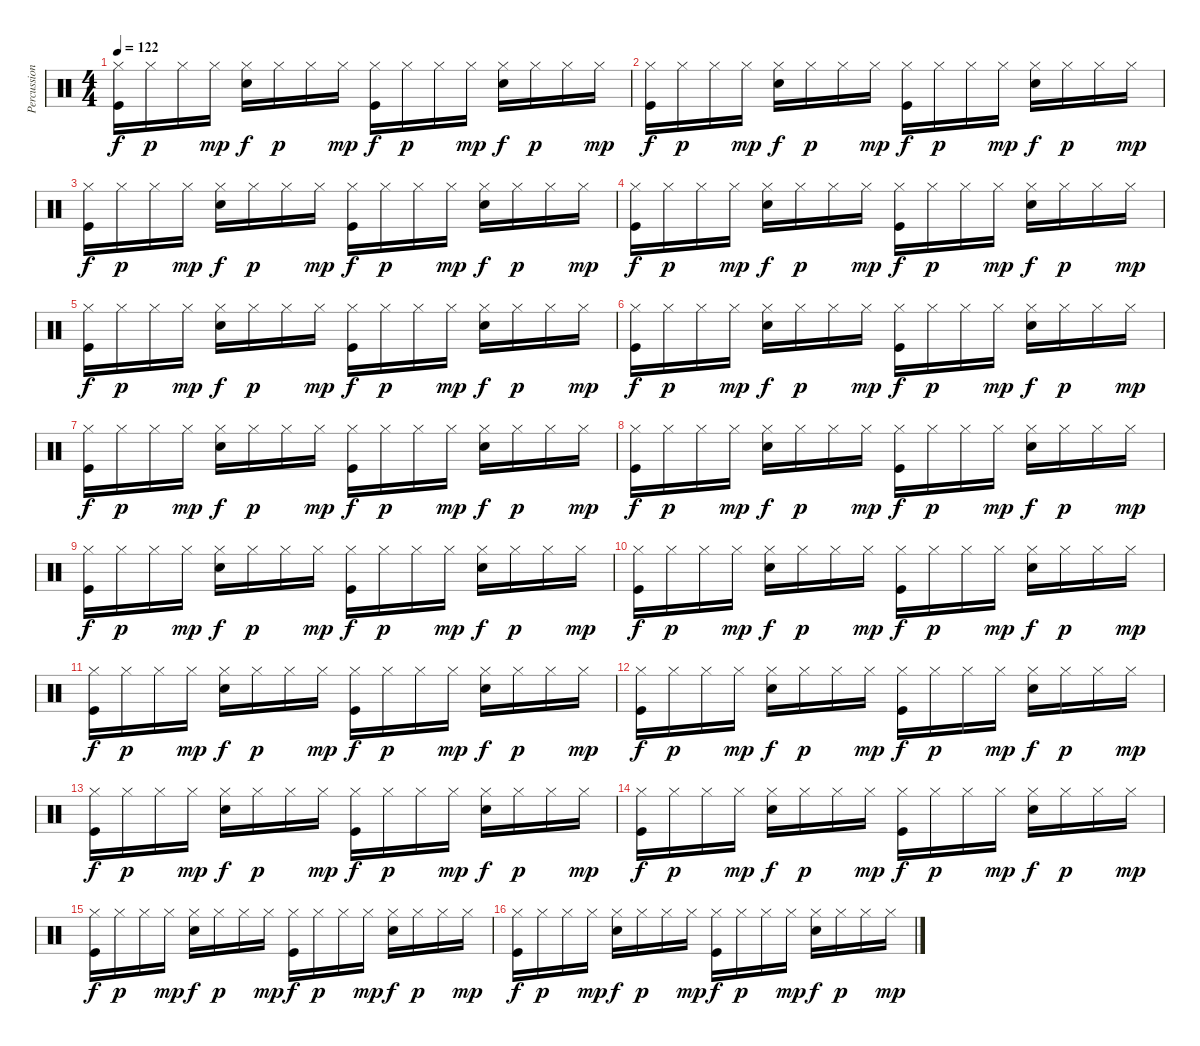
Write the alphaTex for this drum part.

\track ("Percussion" "Percussion") {instrument percussion}
\staff {score}
\articulation defaults
\ts (4 4)
\tempo 122
\clef neutral
\ks c
("Hi-Hat (closed)" "Kick (hit)").16{dy f} "Hi-Hat (closed)".16{dy p} "Hi-Hat (closed)".16 "Hi-Hat (closed)".16{dy mp} ("Hi-Hat (closed)" "Snare (hit) 2").16{dy f} "Hi-Hat (closed)".16{dy p} "Hi-Hat (closed)".16 "Hi-Hat (closed)".16{dy mp} ("Hi-Hat (closed)" "Kick (hit)").16{dy f} "Hi-Hat (closed)".16{dy p} "Hi-Hat (closed)".16 "Hi-Hat (closed)".16{dy mp} ("Hi-Hat (closed)" "Snare (hit) 2").16{dy f} "Hi-Hat (closed)".16{dy p} "Hi-Hat (closed)".16 "Hi-Hat (closed)".16{dy mp} |
("Hi-Hat (closed)" "Kick (hit)").16{dy f} "Hi-Hat (closed)".16{dy p} "Hi-Hat (closed)".16 "Hi-Hat (closed)".16{dy mp} ("Hi-Hat (closed)" "Snare (hit) 2").16{dy f} "Hi-Hat (closed)".16{dy p} "Hi-Hat (closed)".16 "Hi-Hat (closed)".16{dy mp} ("Hi-Hat (closed)" "Kick (hit)").16{dy f} "Hi-Hat (closed)".16{dy p} "Hi-Hat (closed)".16 "Hi-Hat (closed)".16{dy mp} ("Hi-Hat (closed)" "Snare (hit) 2").16{dy f} "Hi-Hat (closed)".16{dy p} "Hi-Hat (closed)".16 "Hi-Hat (closed)".16{dy mp} |
("Hi-Hat (closed)" "Kick (hit)").16{dy f} "Hi-Hat (closed)".16{dy p} "Hi-Hat (closed)".16 "Hi-Hat (closed)".16{dy mp} ("Hi-Hat (closed)" "Snare (hit) 2").16{dy f} "Hi-Hat (closed)".16{dy p} "Hi-Hat (closed)".16 "Hi-Hat (closed)".16{dy mp} ("Hi-Hat (closed)" "Kick (hit)").16{dy f} "Hi-Hat (closed)".16{dy p} "Hi-Hat (closed)".16 "Hi-Hat (closed)".16{dy mp} ("Hi-Hat (closed)" "Snare (hit) 2").16{dy f} "Hi-Hat (closed)".16{dy p} "Hi-Hat (closed)".16 "Hi-Hat (closed)".16{dy mp} |
("Hi-Hat (closed)" "Kick (hit)").16{dy f} "Hi-Hat (closed)".16{dy p} "Hi-Hat (closed)".16 "Hi-Hat (closed)".16{dy mp} ("Hi-Hat (closed)" "Snare (hit) 2").16{dy f} "Hi-Hat (closed)".16{dy p} "Hi-Hat (closed)".16 "Hi-Hat (closed)".16{dy mp} ("Hi-Hat (closed)" "Kick (hit)").16{dy f} "Hi-Hat (closed)".16{dy p} "Hi-Hat (closed)".16 "Hi-Hat (closed)".16{dy mp} ("Hi-Hat (closed)" "Snare (hit) 2").16{dy f} "Hi-Hat (closed)".16{dy p} "Hi-Hat (closed)".16 "Hi-Hat (closed)".16{dy mp} |
("Hi-Hat (closed)" "Kick (hit)").16{dy f} "Hi-Hat (closed)".16{dy p} "Hi-Hat (closed)".16 "Hi-Hat (closed)".16{dy mp} ("Hi-Hat (closed)" "Snare (hit) 2").16{dy f} "Hi-Hat (closed)".16{dy p} "Hi-Hat (closed)".16 "Hi-Hat (closed)".16{dy mp} ("Hi-Hat (closed)" "Kick (hit)").16{dy f} "Hi-Hat (closed)".16{dy p} "Hi-Hat (closed)".16 "Hi-Hat (closed)".16{dy mp} ("Hi-Hat (closed)" "Snare (hit) 2").16{dy f} "Hi-Hat (closed)".16{dy p} "Hi-Hat (closed)".16 "Hi-Hat (closed)".16{dy mp} |
("Hi-Hat (closed)" "Kick (hit)").16{dy f} "Hi-Hat (closed)".16{dy p} "Hi-Hat (closed)".16 "Hi-Hat (closed)".16{dy mp} ("Hi-Hat (closed)" "Snare (hit) 2").16{dy f} "Hi-Hat (closed)".16{dy p} "Hi-Hat (closed)".16 "Hi-Hat (closed)".16{dy mp} ("Hi-Hat (closed)" "Kick (hit)").16{dy f} "Hi-Hat (closed)".16{dy p} "Hi-Hat (closed)".16 "Hi-Hat (closed)".16{dy mp} ("Hi-Hat (closed)" "Snare (hit) 2").16{dy f} "Hi-Hat (closed)".16{dy p} "Hi-Hat (closed)".16 "Hi-Hat (closed)".16{dy mp} |
("Hi-Hat (closed)" "Kick (hit)").16{dy f} "Hi-Hat (closed)".16{dy p} "Hi-Hat (closed)".16 "Hi-Hat (closed)".16{dy mp} ("Hi-Hat (closed)" "Snare (hit) 2").16{dy f} "Hi-Hat (closed)".16{dy p} "Hi-Hat (closed)".16 "Hi-Hat (closed)".16{dy mp} ("Hi-Hat (closed)" "Kick (hit)").16{dy f} "Hi-Hat (closed)".16{dy p} "Hi-Hat (closed)".16 "Hi-Hat (closed)".16{dy mp} ("Hi-Hat (closed)" "Snare (hit) 2").16{dy f} "Hi-Hat (closed)".16{dy p} "Hi-Hat (closed)".16 "Hi-Hat (closed)".16{dy mp} |
("Hi-Hat (closed)" "Kick (hit)").16{dy f} "Hi-Hat (closed)".16{dy p} "Hi-Hat (closed)".16 "Hi-Hat (closed)".16{dy mp} ("Hi-Hat (closed)" "Snare (hit) 2").16{dy f} "Hi-Hat (closed)".16{dy p} "Hi-Hat (closed)".16 "Hi-Hat (closed)".16{dy mp} ("Hi-Hat (closed)" "Kick (hit)").16{dy f} "Hi-Hat (closed)".16{dy p} "Hi-Hat (closed)".16 "Hi-Hat (closed)".16{dy mp} ("Hi-Hat (closed)" "Snare (hit) 2").16{dy f} "Hi-Hat (closed)".16{dy p} "Hi-Hat (closed)".16 "Hi-Hat (closed)".16{dy mp} |
("Hi-Hat (closed)" "Kick (hit)").16{dy f} "Hi-Hat (closed)".16{dy p} "Hi-Hat (closed)".16 "Hi-Hat (closed)".16{dy mp} ("Hi-Hat (closed)" "Snare (hit) 2").16{dy f} "Hi-Hat (closed)".16{dy p} "Hi-Hat (closed)".16 "Hi-Hat (closed)".16{dy mp} ("Hi-Hat (closed)" "Kick (hit)").16{dy f} "Hi-Hat (closed)".16{dy p} "Hi-Hat (closed)".16 "Hi-Hat (closed)".16{dy mp} ("Hi-Hat (closed)" "Snare (hit) 2").16{dy f} "Hi-Hat (closed)".16{dy p} "Hi-Hat (closed)".16 "Hi-Hat (closed)".16{dy mp} |
("Hi-Hat (closed)" "Kick (hit)").16{dy f} "Hi-Hat (closed)".16{dy p} "Hi-Hat (closed)".16 "Hi-Hat (closed)".16{dy mp} ("Hi-Hat (closed)" "Snare (hit) 2").16{dy f} "Hi-Hat (closed)".16{dy p} "Hi-Hat (closed)".16 "Hi-Hat (closed)".16{dy mp} ("Hi-Hat (closed)" "Kick (hit)").16{dy f} "Hi-Hat (closed)".16{dy p} "Hi-Hat (closed)".16 "Hi-Hat (closed)".16{dy mp} ("Hi-Hat (closed)" "Snare (hit) 2").16{dy f} "Hi-Hat (closed)".16{dy p} "Hi-Hat (closed)".16 "Hi-Hat (closed)".16{dy mp} |
("Hi-Hat (closed)" "Kick (hit)").16{dy f} "Hi-Hat (closed)".16{dy p} "Hi-Hat (closed)".16 "Hi-Hat (closed)".16{dy mp} ("Hi-Hat (closed)" "Snare (hit) 2").16{dy f} "Hi-Hat (closed)".16{dy p} "Hi-Hat (closed)".16 "Hi-Hat (closed)".16{dy mp} ("Hi-Hat (closed)" "Kick (hit)").16{dy f} "Hi-Hat (closed)".16{dy p} "Hi-Hat (closed)".16 "Hi-Hat (closed)".16{dy mp} ("Hi-Hat (closed)" "Snare (hit) 2").16{dy f} "Hi-Hat (closed)".16{dy p} "Hi-Hat (closed)".16 "Hi-Hat (closed)".16{dy mp} |
("Hi-Hat (closed)" "Kick (hit)").16{dy f} "Hi-Hat (closed)".16{dy p} "Hi-Hat (closed)".16 "Hi-Hat (closed)".16{dy mp} ("Hi-Hat (closed)" "Snare (hit) 2").16{dy f} "Hi-Hat (closed)".16{dy p} "Hi-Hat (closed)".16 "Hi-Hat (closed)".16{dy mp} ("Hi-Hat (closed)" "Kick (hit)").16{dy f} "Hi-Hat (closed)".16{dy p} "Hi-Hat (closed)".16 "Hi-Hat (closed)".16{dy mp} ("Hi-Hat (closed)" "Snare (hit) 2").16{dy f} "Hi-Hat (closed)".16{dy p} "Hi-Hat (closed)".16 "Hi-Hat (closed)".16{dy mp} |
("Hi-Hat (closed)" "Kick (hit)").16{dy f} "Hi-Hat (closed)".16{dy p} "Hi-Hat (closed)".16 "Hi-Hat (closed)".16{dy mp} ("Hi-Hat (closed)" "Snare (hit) 2").16{dy f} "Hi-Hat (closed)".16{dy p} "Hi-Hat (closed)".16 "Hi-Hat (closed)".16{dy mp} ("Hi-Hat (closed)" "Kick (hit)").16{dy f} "Hi-Hat (closed)".16{dy p} "Hi-Hat (closed)".16 "Hi-Hat (closed)".16{dy mp} ("Hi-Hat (closed)" "Snare (hit) 2").16{dy f} "Hi-Hat (closed)".16{dy p} "Hi-Hat (closed)".16 "Hi-Hat (closed)".16{dy mp} |
("Hi-Hat (closed)" "Kick (hit)").16{dy f} "Hi-Hat (closed)".16{dy p} "Hi-Hat (closed)".16 "Hi-Hat (closed)".16{dy mp} ("Hi-Hat (closed)" "Snare (hit) 2").16{dy f} "Hi-Hat (closed)".16{dy p} "Hi-Hat (closed)".16 "Hi-Hat (closed)".16{dy mp} ("Hi-Hat (closed)" "Kick (hit)").16{dy f} "Hi-Hat (closed)".16{dy p} "Hi-Hat (closed)".16 "Hi-Hat (closed)".16{dy mp} ("Hi-Hat (closed)" "Snare (hit) 2").16{dy f} "Hi-Hat (closed)".16{dy p} "Hi-Hat (closed)".16 "Hi-Hat (closed)".16{dy mp} |
("Hi-Hat (closed)" "Kick (hit)").16{dy f} "Hi-Hat (closed)".16{dy p} "Hi-Hat (closed)".16 "Hi-Hat (closed)".16{dy mp} ("Hi-Hat (closed)" "Snare (hit) 2").16{dy f} "Hi-Hat (closed)".16{dy p} "Hi-Hat (closed)".16 "Hi-Hat (closed)".16{dy mp} ("Hi-Hat (closed)" "Kick (hit)").16{dy f} "Hi-Hat (closed)".16{dy p} "Hi-Hat (closed)".16 "Hi-Hat (closed)".16{dy mp} ("Hi-Hat (closed)" "Snare (hit) 2").16{dy f} "Hi-Hat (closed)".16{dy p} "Hi-Hat (closed)".16 "Hi-Hat (closed)".16{dy mp} |
("Hi-Hat (closed)" "Kick (hit)").16{dy f} "Hi-Hat (closed)".16{dy p} "Hi-Hat (closed)".16 "Hi-Hat (closed)".16{dy mp} ("Hi-Hat (closed)" "Snare (hit) 2").16{dy f} "Hi-Hat (closed)".16{dy p} "Hi-Hat (closed)".16 "Hi-Hat (closed)".16{dy mp} ("Hi-Hat (closed)" "Kick (hit)").16{dy f} "Hi-Hat (closed)".16{dy p} "Hi-Hat (closed)".16 "Hi-Hat (closed)".16{dy mp} ("Hi-Hat (closed)" "Snare (hit) 2").16{dy f} "Hi-Hat (closed)".16{dy p} "Hi-Hat (closed)".16 "Hi-Hat (closed)".16{dy mp}
